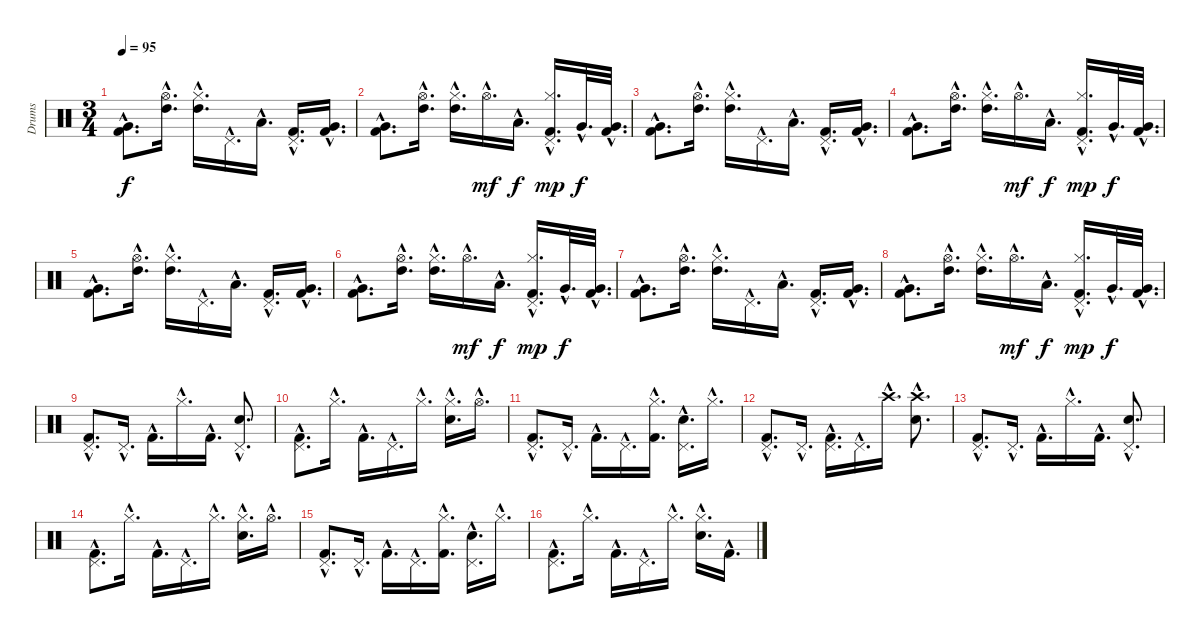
\track ("Drums" "Drums") {instrument percussion}
\staff {score}
\articulation defaults
\ts (3 4)
\tempo 95
\clef neutral
\ks c
("Kick (hit) 2"{hac} "Very Low Tom (hit)"{hac}).8{d dy f} ("High Tom (hit)"{hac} "Hi-Hat (open)"{hac}).16{d} ("High Tom (hit)"{hac} "Hi-Hat (closed)"{hac}).16{d} "Pedal Hi-Hat (hit)"{hac}.16{d} "Low Tom (hit)"{hac}.16{d} ("Kick (hit) 2"{hac} "Pedal Hi-Hat (hit)"{hac}).16{d} ("Kick (hit) 2"{hac} "Very Low Tom (hit)"{hac}).16{d} |
("Kick (hit) 2"{hac} "Very Low Tom (hit)"{hac}).8{d} ("High Tom (hit)"{hac} "Hi-Hat (open)"{hac}).16{d} ("High Tom (hit)"{hac} "Hi-Hat (closed)"{hac}).16{d} "Hi-Hat (open)"{hac}.16{d dy mf} "Low Tom (hit)"{hac}.16{d dy f} ("Kick (hit) 2"{hac} "Pedal Hi-Hat (hit)"{hac} "Hi-Hat (closed)"{hac}).16{d dy mp} "Very Low Tom (hit)"{hac}.32{d dy f} ("Kick (hit) 2"{hac} "Very Low Tom (hit)"{hac}).32{d} |
("Kick (hit) 2"{hac} "Very Low Tom (hit)"{hac}).8{d} ("High Tom (hit)"{hac} "Hi-Hat (open)"{hac}).16{d} ("High Tom (hit)"{hac} "Hi-Hat (closed)"{hac}).16{d} "Pedal Hi-Hat (hit)"{hac}.16{d} "Low Tom (hit)"{hac}.16{d} ("Kick (hit) 2"{hac} "Pedal Hi-Hat (hit)"{hac}).16{d} ("Kick (hit) 2"{hac} "Very Low Tom (hit)"{hac}).16{d} |
("Kick (hit) 2"{hac} "Very Low Tom (hit)"{hac}).8{d} ("High Tom (hit)"{hac} "Hi-Hat (open)"{hac}).16{d} ("High Tom (hit)"{hac} "Hi-Hat (closed)"{hac}).16{d} "Hi-Hat (open)"{hac}.16{d dy mf} "Low Tom (hit)"{hac}.16{d dy f} ("Kick (hit) 2"{hac} "Pedal Hi-Hat (hit)"{hac} "Hi-Hat (closed)"{hac}).16{d dy mp} "Very Low Tom (hit)"{hac}.32{d dy f} ("Kick (hit) 2"{hac} "Very Low Tom (hit)"{hac}).32{d} |
("Kick (hit) 2"{hac} "Very Low Tom (hit)"{hac}).8{d} ("High Tom (hit)"{hac} "Hi-Hat (open)"{hac}).16{d} ("High Tom (hit)"{hac} "Hi-Hat (closed)"{hac}).16{d} "Pedal Hi-Hat (hit)"{hac}.16{d} "Low Tom (hit)"{hac}.16{d} ("Kick (hit) 2"{hac} "Pedal Hi-Hat (hit)"{hac}).16{d} ("Kick (hit) 2"{hac} "Very Low Tom (hit)"{hac}).16{d} |
("Kick (hit) 2"{hac} "Very Low Tom (hit)"{hac}).8{d} ("High Tom (hit)"{hac} "Hi-Hat (open)"{hac}).16{d} ("High Tom (hit)"{hac} "Hi-Hat (closed)"{hac}).16{d} "Hi-Hat (open)"{hac}.16{d dy mf} "Low Tom (hit)"{hac}.16{d dy f} ("Kick (hit) 2"{hac} "Pedal Hi-Hat (hit)"{hac} "Hi-Hat (closed)"{hac}).16{d dy mp} "Very Low Tom (hit)"{hac}.32{d dy f} ("Kick (hit) 2"{hac} "Very Low Tom (hit)"{hac}).32{d} |
("Kick (hit) 2"{hac} "Very Low Tom (hit)"{hac}).8{d} ("High Tom (hit)"{hac} "Hi-Hat (open)"{hac}).16{d} ("High Tom (hit)"{hac} "Hi-Hat (closed)"{hac}).16{d} "Pedal Hi-Hat (hit)"{hac}.16{d} "Low Tom (hit)"{hac}.16{d} ("Kick (hit) 2"{hac} "Pedal Hi-Hat (hit)"{hac}).16{d} ("Kick (hit) 2"{hac} "Very Low Tom (hit)"{hac}).16{d} |
("Kick (hit) 2"{hac} "Very Low Tom (hit)"{hac}).8{d} ("High Tom (hit)"{hac} "Hi-Hat (open)"{hac}).16{d} ("High Tom (hit)"{hac} "Hi-Hat (closed)"{hac}).16{d} "Hi-Hat (open)"{hac}.16{d dy mf} "Low Tom (hit)"{hac}.16{d dy f} ("Kick (hit) 2"{hac} "Pedal Hi-Hat (hit)"{hac} "Hi-Hat (closed)"{hac}).16{d dy mp} "Very Low Tom (hit)"{hac}.32{d dy f} ("Kick (hit) 2"{hac} "Very Low Tom (hit)"{hac}).32{d} |
("Kick (hit) 2"{hac} "Pedal Hi-Hat (hit)"{hac}).8{d} "Pedal Hi-Hat (hit)"{hac}.16{d} "Kick (hit) 2"{hac}.16{d} "Hi-Hat (closed)"{hac}.16{d} "Kick (hit) 2"{hac}.16{d} ("Pedal Hi-Hat (hit)"{hac} "Electric Snare (hit)"{hac}).8{d} |
("Kick (hit) 2"{hac} "Pedal Hi-Hat (hit)"{hac}).8{d} "Hi-Hat (closed)"{hac}.16{d} "Kick (hit) 2"{hac}.16{d} "Pedal Hi-Hat (hit)"{hac}.16{d} "Hi-Hat (closed)"{hac}.16{d} ("Hi-Hat (closed)"{hac} "Electric Snare (hit)"{hac}).16{d} "Hi-Hat (open)"{hac}.16{d} |
("Kick (hit) 2"{hac} "Pedal Hi-Hat (hit)"{hac}).8{d} "Pedal Hi-Hat (hit)"{hac}.16{d} "Kick (hit) 2"{hac}.16{d} "Pedal Hi-Hat (hit)"{hac}.16{d} ("Kick (hit) 2"{hac} "Hi-Hat (closed)"{hac}).16{d} ("Pedal Hi-Hat (hit)"{hac} "Electric Snare (hit)"{hac}).16{d} "Hi-Hat (closed)"{hac}.16{d} |
("Kick (hit) 2"{hac} "Pedal Hi-Hat (hit)"{hac}).8{d} "Pedal Hi-Hat (hit)"{hac}.16{d} ("Kick (hit) 2"{hac} "Pedal Hi-Hat (hit)"{hac}).16{d} "Pedal Hi-Hat (hit)"{hac}.16{d} "Crash high (hit)"{hac}.16{d} ("Crash high (hit)"{hac} "Electric Snare (hit)"{hac}).8{d} |
("Kick (hit) 2"{hac} "Pedal Hi-Hat (hit)"{hac}).8{d} "Pedal Hi-Hat (hit)"{hac}.16{d} "Kick (hit) 2"{hac}.16{d} "Hi-Hat (closed)"{hac}.16{d} "Kick (hit) 2"{hac}.16{d} ("Pedal Hi-Hat (hit)"{hac} "Electric Snare (hit)"{hac}).8{d} |
("Kick (hit) 2"{hac} "Pedal Hi-Hat (hit)"{hac}).8{d} "Hi-Hat (closed)"{hac}.16{d} "Kick (hit) 2"{hac}.16{d} "Pedal Hi-Hat (hit)"{hac}.16{d} "Hi-Hat (closed)"{hac}.16{d} ("Hi-Hat (closed)"{hac} "Electric Snare (hit)"{hac}).16{d} "Hi-Hat (open)"{hac}.16{d} |
("Kick (hit) 2"{hac} "Pedal Hi-Hat (hit)"{hac}).8{d} "Pedal Hi-Hat (hit)"{hac}.16{d} "Kick (hit) 2"{hac}.16{d} "Pedal Hi-Hat (hit)"{hac}.16{d} ("Kick (hit) 2"{hac} "Hi-Hat (closed)"{hac}).16{d} ("Pedal Hi-Hat (hit)"{hac} "Electric Snare (hit)"{hac}).16{d} "Hi-Hat (closed)"{hac}.16{d} |
("Kick (hit) 2"{hac} "Pedal Hi-Hat (hit)"{hac}).8{d} "Hi-Hat (closed)"{hac}.16{d} "Kick (hit) 2"{hac}.16{d} "Pedal Hi-Hat (hit)"{hac}.16{d} "Hi-Hat (closed)"{hac}.16{d} ("Hi-Hat (closed)"{hac} "Electric Snare (hit)"{hac}).16{d} "Kick (hit) 2"{hac}.16{d}
